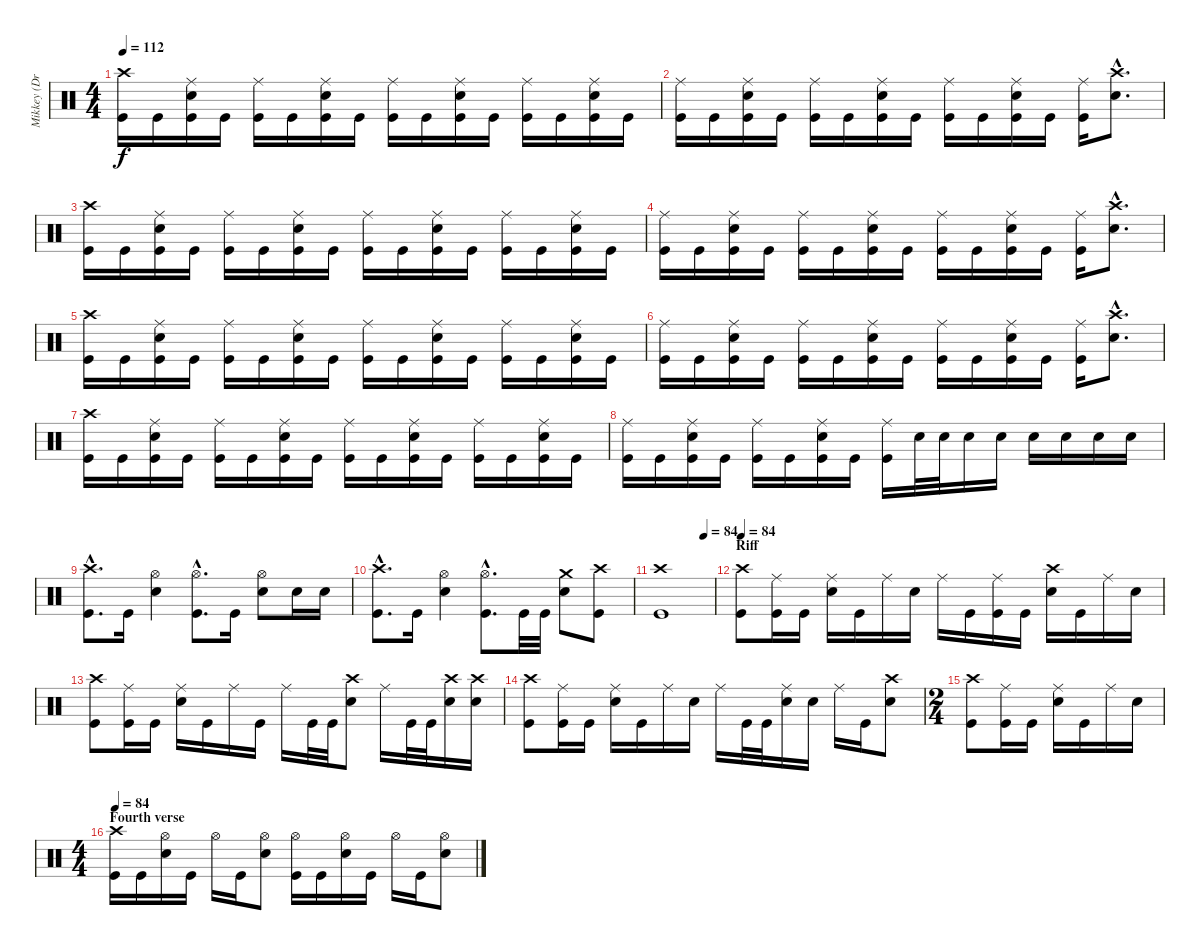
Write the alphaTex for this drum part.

\track ("Mikkey (Drums)" "Mikkey (Dr") {instrument percussion}
\staff {score}
\articulation defaults
\ts (4 4)
\tempo 112
\clef neutral
\ks c
("Crash high (hit)" "Kick (hit)").16{dy f} "Kick (hit)".16 ("Ride (middle)" "Electric Snare (hit)" "Kick (hit)").16 "Kick (hit)".16 ("Ride (middle)" "Kick (hit)").16 "Kick (hit)".16 ("Ride (middle)" "Electric Snare (hit)" "Kick (hit)").16 "Kick (hit)".16 ("Ride (middle)" "Kick (hit)").16 "Kick (hit)".16 ("Ride (middle)" "Electric Snare (hit)" "Kick (hit)").16 "Kick (hit)".16 ("Ride (middle)" "Kick (hit)").16 "Kick (hit)".16 ("Ride (middle)" "Electric Snare (hit)" "Kick (hit)").16 "Kick (hit)".16 |
("Ride (middle)" "Kick (hit)").16 "Kick (hit)".16 ("Ride (middle)" "Electric Snare (hit)" "Kick (hit)").16 "Kick (hit)".16 ("Ride (middle)" "Kick (hit)").16 "Kick (hit)".16 ("Ride (middle)" "Electric Snare (hit)" "Kick (hit)").16 "Kick (hit)".16 ("Ride (middle)" "Kick (hit)").16 "Kick (hit)".16 ("Ride (middle)" "Electric Snare (hit)" "Kick (hit)").16 "Kick (hit)".16 ("Ride (middle)" "Kick (hit)").16 ("Crash high (hit)"{hac} "Electric Snare (hit)"{hac}).8{d} |
("Crash high (hit)" "Kick (hit)").16 "Kick (hit)".16 ("Ride (middle)" "Electric Snare (hit)" "Kick (hit)").16 "Kick (hit)".16 ("Ride (middle)" "Kick (hit)").16 "Kick (hit)".16 ("Ride (middle)" "Electric Snare (hit)" "Kick (hit)").16 "Kick (hit)".16 ("Ride (middle)" "Kick (hit)").16 "Kick (hit)".16 ("Ride (middle)" "Electric Snare (hit)" "Kick (hit)").16 "Kick (hit)".16 ("Ride (middle)" "Kick (hit)").16 "Kick (hit)".16 ("Ride (middle)" "Electric Snare (hit)" "Kick (hit)").16 "Kick (hit)".16 |
("Ride (middle)" "Kick (hit)").16 "Kick (hit)".16 ("Ride (middle)" "Electric Snare (hit)" "Kick (hit)").16 "Kick (hit)".16 ("Ride (middle)" "Kick (hit)").16 "Kick (hit)".16 ("Ride (middle)" "Electric Snare (hit)" "Kick (hit)").16 "Kick (hit)".16 ("Ride (middle)" "Kick (hit)").16 "Kick (hit)".16 ("Ride (middle)" "Electric Snare (hit)" "Kick (hit)").16 "Kick (hit)".16 ("Ride (middle)" "Kick (hit)").16 ("Crash high (hit)"{hac} "Electric Snare (hit)"{hac}).8{d} |
("Crash high (hit)" "Kick (hit)").16 "Kick (hit)".16 ("Ride (middle)" "Electric Snare (hit)" "Kick (hit)").16 "Kick (hit)".16 ("Ride (middle)" "Kick (hit)").16 "Kick (hit)".16 ("Ride (middle)" "Electric Snare (hit)" "Kick (hit)").16 "Kick (hit)".16 ("Ride (middle)" "Kick (hit)").16 "Kick (hit)".16 ("Ride (middle)" "Electric Snare (hit)" "Kick (hit)").16 "Kick (hit)".16 ("Ride (middle)" "Kick (hit)").16 "Kick (hit)".16 ("Ride (middle)" "Electric Snare (hit)" "Kick (hit)").16 "Kick (hit)".16 |
("Ride (middle)" "Kick (hit)").16 "Kick (hit)".16 ("Ride (middle)" "Electric Snare (hit)" "Kick (hit)").16 "Kick (hit)".16 ("Ride (middle)" "Kick (hit)").16 "Kick (hit)".16 ("Ride (middle)" "Electric Snare (hit)" "Kick (hit)").16 "Kick (hit)".16 ("Ride (middle)" "Kick (hit)").16 "Kick (hit)".16 ("Ride (middle)" "Electric Snare (hit)" "Kick (hit)").16 "Kick (hit)".16 ("Ride (middle)" "Kick (hit)").16 ("Crash high (hit)"{hac} "Electric Snare (hit)"{hac}).8{d} |
("Crash high (hit)" "Kick (hit)").16 "Kick (hit)".16 ("Ride (middle)" "Electric Snare (hit)" "Kick (hit)").16 "Kick (hit)".16 ("Ride (middle)" "Kick (hit)").16 "Kick (hit)".16 ("Ride (middle)" "Electric Snare (hit)" "Kick (hit)").16 "Kick (hit)".16 ("Ride (middle)" "Kick (hit)").16 "Kick (hit)".16 ("Ride (middle)" "Electric Snare (hit)" "Kick (hit)").16 "Kick (hit)".16 ("Ride (middle)" "Kick (hit)").16 "Kick (hit)".16 ("Ride (middle)" "Electric Snare (hit)" "Kick (hit)").16 "Kick (hit)".16 |
("Ride (middle)" "Kick (hit)").16 "Kick (hit)".16 ("Ride (middle)" "Electric Snare (hit)" "Kick (hit)").16 "Kick (hit)".16 ("Ride (middle)" "Kick (hit)").16 "Kick (hit)".16 ("Ride (middle)" "Electric Snare (hit)" "Kick (hit)").16 "Kick (hit)".16 ("Ride (middle)" "Kick (hit)").16 "Electric Snare (hit)".32 "Electric Snare (hit)".32 "Electric Snare (hit)".16 "Electric Snare (hit)".16 "Electric Snare (hit)".16 "Electric Snare (hit)".16 "Electric Snare (hit)".16 "Electric Snare (hit)".16 |
("Crash high (hit)"{hac} "Kick (hit)"{hac}).8{d} "Kick (hit)".16 ("Hi-Hat (open)" "Electric Snare (hit)").4 ("Hi-Hat (open)"{hac} "Kick (hit)"{hac}).8{d} "Kick (hit)".16 ("Hi-Hat (open)" "Electric Snare (hit)").8 "Electric Snare (hit)".16 "Electric Snare (hit)".16 |
("Crash high (hit)"{hac} "Kick (hit)"{hac}).8{d} "Kick (hit)".16 ("Hi-Hat (open)" "Electric Snare (hit)").4 ("Hi-Hat (open)"{hac} "Kick (hit)"{hac}).8{d} "Kick (hit)".32 "Kick (hit)".32 ("Crash medium (hit)" "Electric Snare (hit)").8 ("Crash high (hit)" "Kick (hit)").8 |
\tempo (84 0.8125)
("Crash high (hit)" "Kick (hit)").1 |
\section ("" "Riff")
\tempo 84
("Crash high (hit)" "Kick (hit)").8 ("Ride (middle)" "Kick (hit)").16 "Kick (hit)".16 ("Ride (middle)" "Electric Snare (hit)").16 "Kick (hit)".16 "Ride (middle)".16 "Electric Snare (hit)".16 "Ride (middle)".16 "Kick (hit)".16 ("Ride (middle)" "Kick (hit)").16 "Kick (hit)".16 ("Crash high (hit)" "Electric Snare (hit)").16 "Kick (hit)".16 "Ride (middle)".16 "Electric Snare (hit)".16 |
("Crash high (hit)" "Kick (hit)").8 ("Ride (middle)" "Kick (hit)").16 "Kick (hit)".16 ("Ride (middle)" "Electric Snare (hit)").16 "Kick (hit)".16 "Ride (middle)".16 "Kick (hit)".16 "Ride (middle)".16 "Kick (hit)".32 "Kick (hit)".32 ("Crash high (hit)" "Electric Snare (hit)").8 "Ride (middle)".16 "Kick (hit)".32 "Kick (hit)".32 ("Crash high (hit)" "Electric Snare (hit)").16 ("Crash high (hit)" "Electric Snare (hit)").16 |
("Crash high (hit)" "Kick (hit)").8 ("Ride (middle)" "Kick (hit)").16 "Kick (hit)".16 ("Ride (middle)" "Electric Snare (hit)").16 "Kick (hit)".16 "Ride (middle)".16 "Electric Snare (hit)".16 "Ride (middle)".16 "Kick (hit)".32 "Kick (hit)".32 ("Ride (middle)" "Electric Snare (hit)").16 "Electric Snare (hit)".16 "Ride (middle)".16 "Kick (hit)".16 ("Crash high (hit)" "Electric Snare (hit)").8 |
\ts (2 4)
("Crash high (hit)" "Kick (hit)").8 ("Ride (middle)" "Kick (hit)").16 "Kick (hit)".16 ("Ride (middle)" "Electric Snare (hit)").16 "Kick (hit)".16 "Ride (middle)".16 "Electric Snare (hit)".16 |
\ts (4 4)
\section ("" "Fourth verse")
\tempo 84
("Crash high (hit)" "Kick (hit)").16 "Kick (hit)".16 ("Hi-Hat (open)" "Electric Snare (hit)").16 "Kick (hit)".16 "Hi-Hat (open)".16 "Kick (hit)".16 ("Hi-Hat (open)" "Electric Snare (hit)").8 ("Hi-Hat (open)" "Kick (hit)").16 "Kick (hit)".16 ("Hi-Hat (open)" "Electric Snare (hit)").16 "Kick (hit)".16 "Hi-Hat (open)".16 "Kick (hit)".16 ("Hi-Hat (open)" "Electric Snare (hit)").8
